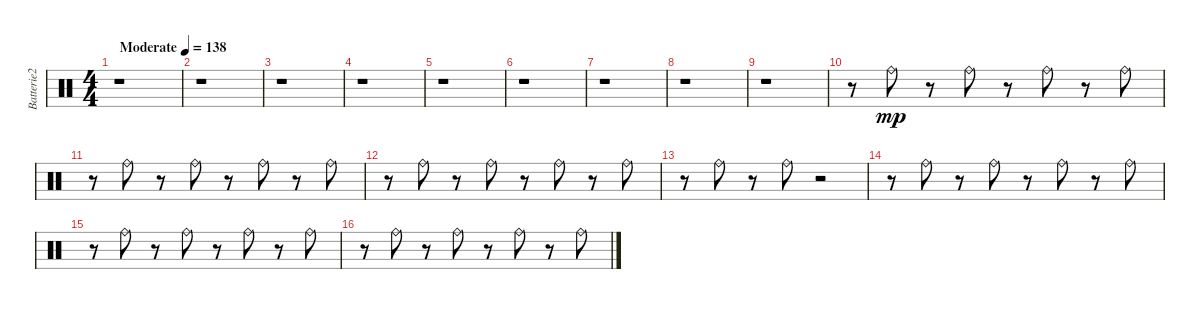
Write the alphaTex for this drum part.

\track ("Batterie2" "Batterie2") {instrument percussion}
\staff {score}
\articulation defaults
\ts (4 4)
\tempo (138 "Moderate")
\clef neutral
\ks c
r.1{dy mp} |
r.1 |
r.1 |
r.1 |
r.1 |
r.1 |
r.1 |
r.1 |
r.1 |
r.8 "Ride (bell)".8 r.8 "Ride (bell)".8 r.8 "Ride (bell)".8 r.8 "Ride (bell)".8 |
r.8 "Ride (bell)".8 r.8 "Ride (bell)".8 r.8 "Ride (bell)".8 r.8 "Ride (bell)".8 |
r.8 "Ride (bell)".8 r.8 "Ride (bell)".8 r.8 "Ride (bell)".8 r.8 "Ride (bell)".8 |
r.8 "Ride (bell)".8 r.8 "Ride (bell)".8 r.2 |
r.8 "Ride (bell)".8 r.8 "Ride (bell)".8 r.8 "Ride (bell)".8 r.8 "Ride (bell)".8 |
r.8 "Ride (bell)".8 r.8 "Ride (bell)".8 r.8 "Ride (bell)".8 r.8 "Ride (bell)".8 |
r.8 "Ride (bell)".8 r.8 "Ride (bell)".8 r.8 "Ride (bell)".8 r.8 "Ride (bell)".8
